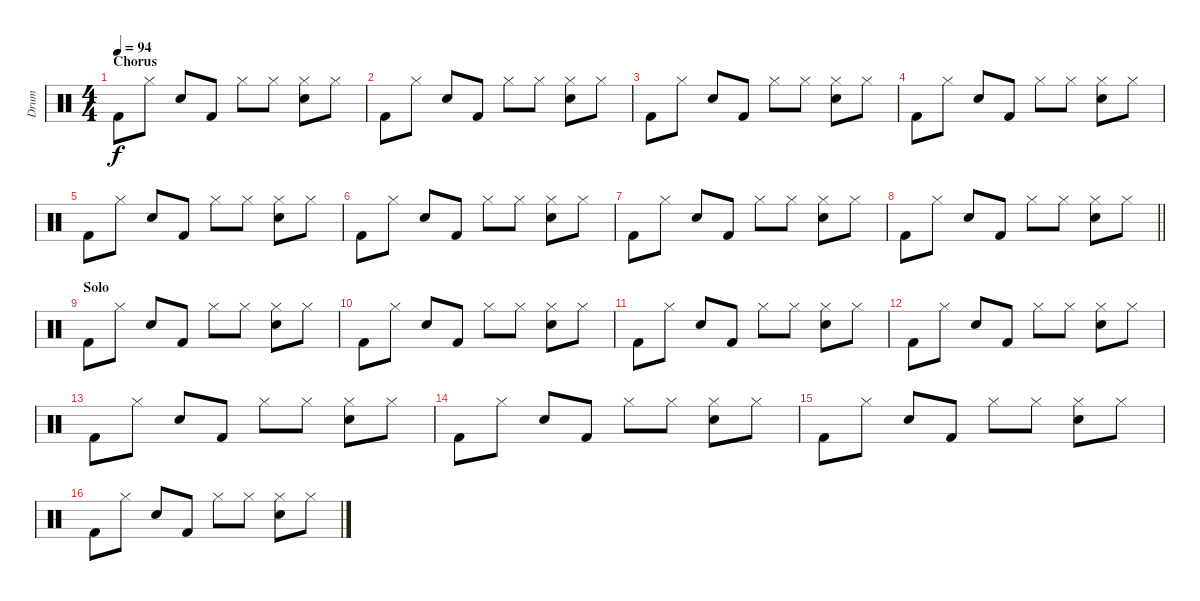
\track ("Drum" "Drum") {instrument percussion}
\staff {score}
\articulation defaults
\ts (4 4)
\section ("" "Chorus")
\tempo 94
\clef neutral
\ks c "Kick (hit) 2".8{dy f} "Hi-Hat (closed)".8 "Electric Snare (hit)".8 "Kick (hit) 2".8 "Hi-Hat (closed)".8 "Hi-Hat (closed)".8
("Hi-Hat (closed)" "Electric Snare (hit)").8 "Hi-Hat (closed)".8 |
"Kick (hit) 2".8 "Hi-Hat (closed)".8 "Electric Snare (hit)".8 "Kick (hit) 2".8 "Hi-Hat (closed)".8 "Hi-Hat (closed)".8 ("Hi-Hat (closed)" "Electric Snare (hit)").8 "Hi-Hat (closed)".8 |
"Kick (hit) 2".8 "Hi-Hat (closed)".8 "Electric Snare (hit)".8 "Kick (hit) 2".8 "Hi-Hat (closed)".8 "Hi-Hat (closed)".8 ("Hi-Hat (closed)" "Electric Snare (hit)").8 "Hi-Hat (closed)".8 |
"Kick (hit) 2".8 "Hi-Hat (closed)".8 "Electric Snare (hit)".8 "Kick (hit) 2".8 "Hi-Hat (closed)".8 "Hi-Hat (closed)".8 ("Hi-Hat (closed)" "Electric Snare (hit)").8 "Hi-Hat (closed)".8 |
"Kick (hit) 2".8 "Hi-Hat (closed)".8 "Electric Snare (hit)".8 "Kick (hit) 2".8 "Hi-Hat (closed)".8 "Hi-Hat (closed)".8 ("Hi-Hat (closed)" "Electric Snare (hit)").8 "Hi-Hat (closed)".8 |
"Kick (hit) 2".8 "Hi-Hat (closed)".8 "Electric Snare (hit)".8 "Kick (hit) 2".8 "Hi-Hat (closed)".8 "Hi-Hat (closed)".8 ("Hi-Hat (closed)" "Electric Snare (hit)").8 "Hi-Hat (closed)".8 |
"Kick (hit) 2".8 "Hi-Hat (closed)".8 "Electric Snare (hit)".8 "Kick (hit) 2".8 "Hi-Hat (closed)".8 "Hi-Hat (closed)".8 ("Hi-Hat (closed)" "Electric Snare (hit)").8 "Hi-Hat (closed)".8 |
\barLineRight lightlight "Kick (hit) 2".8 "Hi-Hat (closed)".8 "Electric Snare (hit)".8 "Kick (hit) 2".8 "Hi-Hat (closed)".8 "Hi-Hat (closed)".8
("Hi-Hat (closed)" "Electric Snare (hit)").8 "Hi-Hat (closed)".8 |
\section ("" "Solo")
"Kick (hit) 2".8 "Hi-Hat (closed)".8 "Electric Snare (hit)".8 "Kick (hit) 2".8 "Hi-Hat (closed)".8 "Hi-Hat (closed)".8 ("Hi-Hat (closed)" "Electric Snare (hit)").8 "Hi-Hat (closed)".8 |
"Kick (hit) 2".8 "Hi-Hat (closed)".8 "Electric Snare (hit)".8 "Kick (hit) 2".8 "Hi-Hat (closed)".8 "Hi-Hat (closed)".8 ("Hi-Hat (closed)" "Electric Snare (hit)").8 "Hi-Hat (closed)".8 |
"Kick (hit) 2".8 "Hi-Hat (closed)".8 "Electric Snare (hit)".8 "Kick (hit) 2".8 "Hi-Hat (closed)".8 "Hi-Hat (closed)".8 ("Hi-Hat (closed)" "Electric Snare (hit)").8 "Hi-Hat (closed)".8 |
"Kick (hit) 2".8 "Hi-Hat (closed)".8 "Electric Snare (hit)".8 "Kick (hit) 2".8 "Hi-Hat (closed)".8 "Hi-Hat (closed)".8 ("Hi-Hat (closed)" "Electric Snare (hit)").8 "Hi-Hat (closed)".8 |
"Kick (hit) 2".8 "Hi-Hat (closed)".8 "Electric Snare (hit)".8 "Kick (hit) 2".8 "Hi-Hat (closed)".8 "Hi-Hat (closed)".8 ("Hi-Hat (closed)" "Electric Snare (hit)").8 "Hi-Hat (closed)".8 |
"Kick (hit) 2".8 "Hi-Hat (closed)".8 "Electric Snare (hit)".8 "Kick (hit) 2".8 "Hi-Hat (closed)".8 "Hi-Hat (closed)".8 ("Hi-Hat (closed)" "Electric Snare (hit)").8 "Hi-Hat (closed)".8 |
"Kick (hit) 2".8 "Hi-Hat (closed)".8 "Electric Snare (hit)".8 "Kick (hit) 2".8 "Hi-Hat (closed)".8 "Hi-Hat (closed)".8 ("Hi-Hat (closed)" "Electric Snare (hit)").8 "Hi-Hat (closed)".8 |
"Kick (hit) 2".8 "Hi-Hat (closed)".8 "Electric Snare (hit)".8 "Kick (hit) 2".8 "Hi-Hat (closed)".8 "Hi-Hat (closed)".8 ("Hi-Hat (closed)" "Electric Snare (hit)").8 "Hi-Hat (closed)".8
